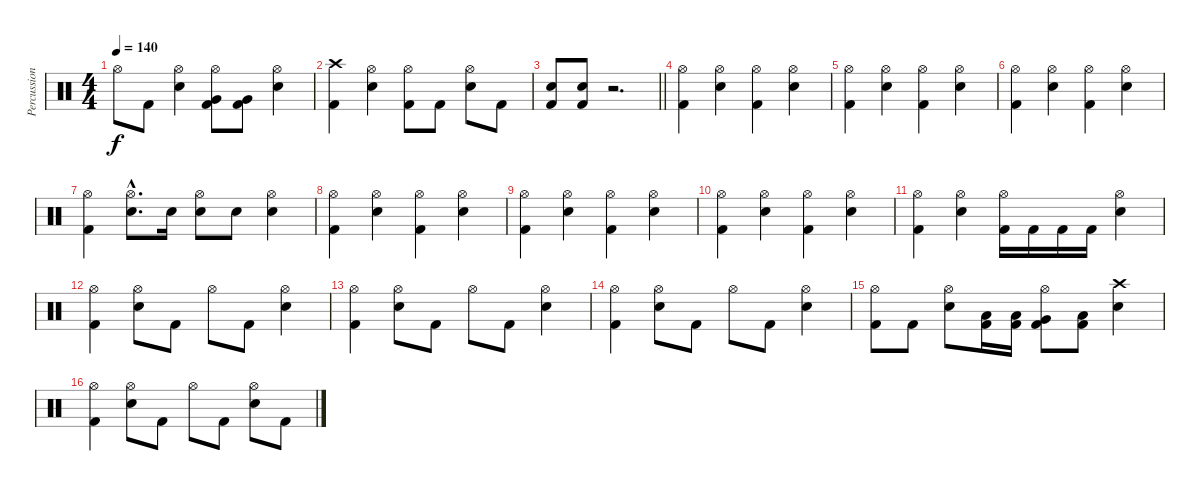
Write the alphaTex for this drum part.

\track ("Percussion" "Percussion") {instrument percussion}
\staff {score}
\articulation defaults
\ts (4 4)
\tempo 140
\clef neutral
\ks c "Hi-Hat (open)".8{dy f} "Kick (hit) 2".8
("Hi-Hat (open)" "Snare (hit) 2").4 ("Hi-Hat (open)" "Very Low Tom (hit)" "Kick (hit) 2").8 ("Very Low Tom (hit)" "Kick (hit) 2").8 ("Hi-Hat (open)" "Snare (hit) 2").4 |
("Crash high (hit)" "Kick (hit) 2").4 ("Hi-Hat (open)" "Snare (hit) 2").4 ("Hi-Hat (open)" "Kick (hit) 2").8 "Kick (hit) 2".8 ("Hi-Hat (open)" "Snare (hit) 2").8 "Kick (hit) 2".8 |
\barLineRight lightlight
("Snare (hit) 2" "Kick (hit) 2").8 ("Snare (hit) 2" "Kick (hit) 2").8 r.2{d} |
("Hi-Hat (open)" "Kick (hit) 2").4 ("Hi-Hat (open)" "Snare (hit) 2").4 ("Hi-Hat (open)" "Kick (hit) 2").4 ("Hi-Hat (open)" "Snare (hit) 2").4 |
("Hi-Hat (open)" "Kick (hit) 2").4 ("Hi-Hat (open)" "Snare (hit) 2").4 ("Hi-Hat (open)" "Kick (hit) 2").4 ("Hi-Hat (open)" "Snare (hit) 2").4 |
("Hi-Hat (open)" "Kick (hit) 2").4 ("Hi-Hat (open)" "Snare (hit) 2").4 ("Hi-Hat (open)" "Kick (hit) 2").4 ("Hi-Hat (open)" "Snare (hit) 2").4 |
("Hi-Hat (open)" "Kick (hit) 2").4 ("Hi-Hat (open)"{hac} "Snare (hit) 2"{hac}).8{d} "Snare (hit) 2".16 ("Hi-Hat (open)" "Snare (hit) 2").8 "Snare (hit) 2".8 ("Hi-Hat (open)" "Snare (hit) 2").4 |
("Hi-Hat (open)" "Kick (hit) 2").4 ("Hi-Hat (open)" "Snare (hit) 2").4 ("Hi-Hat (open)" "Kick (hit) 2").4 ("Hi-Hat (open)" "Snare (hit) 2").4 |
("Hi-Hat (open)" "Kick (hit) 2").4 ("Hi-Hat (open)" "Snare (hit) 2").4 ("Hi-Hat (open)" "Kick (hit) 2").4 ("Hi-Hat (open)" "Snare (hit) 2").4 |
("Hi-Hat (open)" "Kick (hit) 2").4 ("Hi-Hat (open)" "Snare (hit) 2").4 ("Hi-Hat (open)" "Kick (hit) 2").4 ("Hi-Hat (open)" "Snare (hit) 2").4 |
("Hi-Hat (open)" "Kick (hit) 2").4 ("Hi-Hat (open)" "Snare (hit) 2").4 ("Hi-Hat (open)" "Kick (hit) 2").16 "Kick (hit) 2".16 "Kick (hit) 2".16 "Kick (hit) 2".16 ("Hi-Hat (open)" "Snare (hit) 2").4 |
("Hi-Hat (open)" "Kick (hit) 2").4 ("Hi-Hat (open)" "Snare (hit) 2").8 "Kick (hit) 2".8 "Hi-Hat (open)".8 "Kick (hit) 2".8 ("Hi-Hat (open)" "Snare (hit) 2").4 |
("Hi-Hat (open)" "Kick (hit) 2").4 ("Hi-Hat (open)" "Snare (hit) 2").8 "Kick (hit) 2".8 "Hi-Hat (open)".8 "Kick (hit) 2".8 ("Hi-Hat (open)" "Snare (hit) 2").4 |
("Hi-Hat (open)" "Kick (hit) 2").4 ("Hi-Hat (open)" "Snare (hit) 2").8 "Kick (hit) 2".8 "Hi-Hat (open)".8 "Kick (hit) 2".8 ("Hi-Hat (open)" "Snare (hit) 2").4 |
("Hi-Hat (open)" "Kick (hit) 2").8 "Kick (hit) 2".8 ("Hi-Hat (open)" "Snare (hit) 2").8 ("Low Floor Tom (hit)" "Kick (hit) 2").16 ("Low Floor Tom (hit)" "Kick (hit) 2").16 ("Hi-Hat (open)" "Very Low Tom (hit)" "Kick (hit) 2").8 ("Low Floor Tom (hit)" "Kick (hit) 2").8 ("Crash high (hit)" "Snare (hit) 2").4 |
("Hi-Hat (open)" "Kick (hit) 2").4 ("Hi-Hat (open)" "Snare (hit) 2").8 "Kick (hit) 2".8 "Hi-Hat (open)".8 "Kick (hit) 2".8 ("Hi-Hat (open)" "Snare (hit) 2").8 "Kick (hit) 2".8
